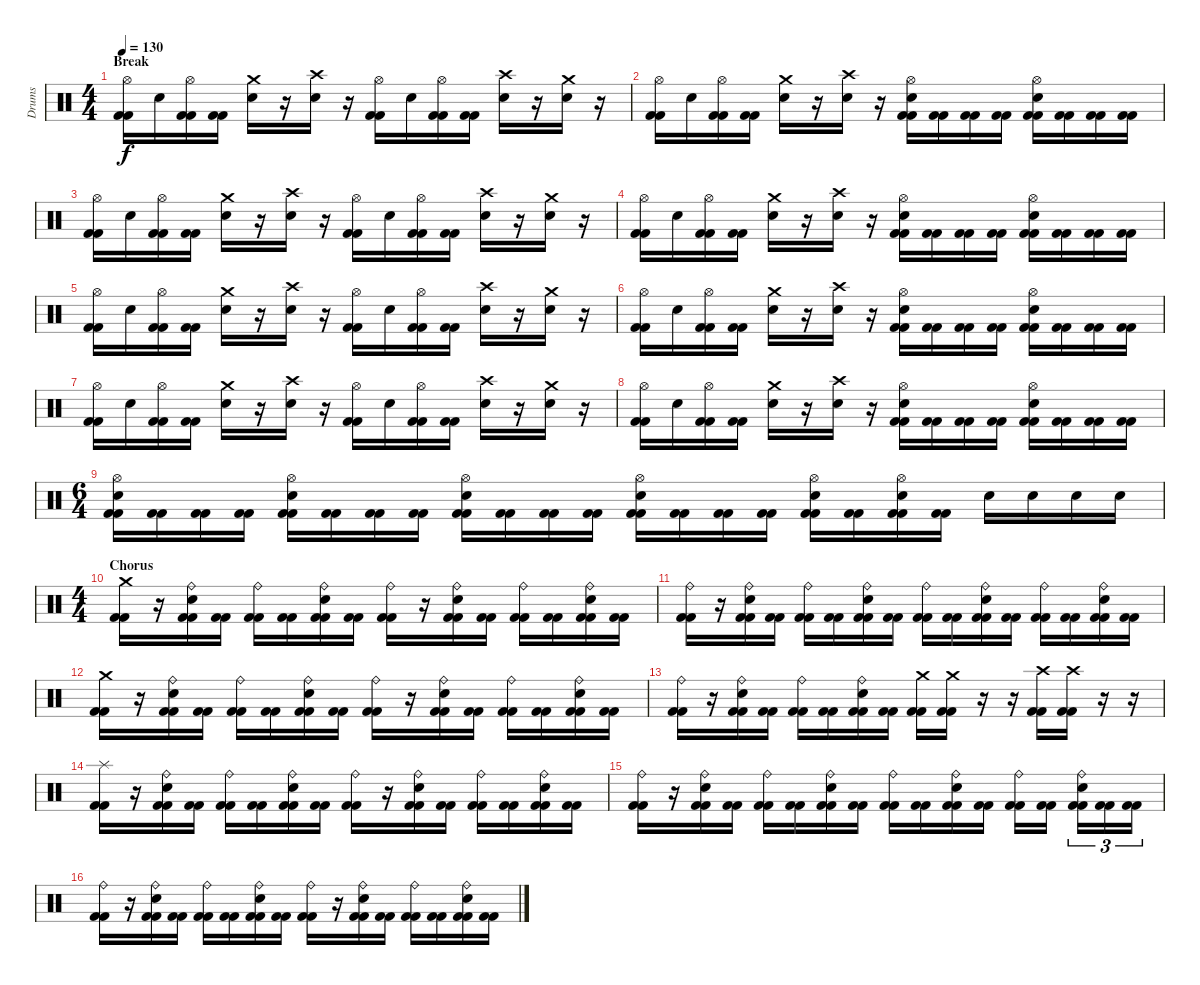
\track ("Drums" "Drums") {instrument percussion}
\staff {score}
\articulation defaults
\ts (4 4)
\section ("" "Break")
\tempo 130
\clef neutral
\ks c
("Hi-Hat (open)" "Kick (hit) 2" "Kick (hit) 2").16{dy f} "Electric Snare (hit)".16 ("Hi-Hat (open)" "Kick (hit) 2" "Kick (hit) 2").16 ("Kick (hit) 2" "Kick (hit) 2").16 ("Crash medium (hit)" "Electric Snare (hit)").16 r.16 ("Crash high (hit)" "Electric Snare (hit)").16 r.16 ("Hi-Hat (open)" "Kick (hit) 2" "Kick (hit) 2").16 "Electric Snare (hit)".16 ("Hi-Hat (open)" "Kick (hit) 2" "Kick (hit) 2").16 ("Kick (hit) 2" "Kick (hit) 2").16 ("Crash high (hit)" "Electric Snare (hit)").16 r.16 ("Crash medium (hit)" "Electric Snare (hit)").16 r.16 |
("Hi-Hat (open)" "Kick (hit) 2" "Kick (hit) 2").16 "Electric Snare (hit)".16 ("Hi-Hat (open)" "Kick (hit) 2" "Kick (hit) 2").16 ("Kick (hit) 2" "Kick (hit) 2").16 ("Crash medium (hit)" "Electric Snare (hit)").16 r.16 ("Crash high (hit)" "Electric Snare (hit)").16 r.16 ("Hi-Hat (open)" "Electric Snare (hit)" "Kick (hit) 2" "Kick (hit) 2").16 ("Kick (hit) 2" "Kick (hit) 2").16 ("Kick (hit) 2" "Kick (hit) 2").16 ("Kick (hit) 2" "Kick (hit) 2").16 ("Hi-Hat (open)" "Electric Snare (hit)" "Kick (hit) 2" "Kick (hit) 2").16 ("Kick (hit) 2" "Kick (hit) 2").16 ("Kick (hit) 2" "Kick (hit) 2").16 ("Kick (hit) 2" "Kick (hit) 2").16 |
("Hi-Hat (open)" "Kick (hit) 2" "Kick (hit) 2").16 "Electric Snare (hit)".16 ("Hi-Hat (open)" "Kick (hit) 2" "Kick (hit) 2").16 ("Kick (hit) 2" "Kick (hit) 2").16 ("Crash medium (hit)" "Electric Snare (hit)").16 r.16 ("Crash high (hit)" "Electric Snare (hit)").16 r.16 ("Hi-Hat (open)" "Kick (hit) 2" "Kick (hit) 2").16 "Electric Snare (hit)".16 ("Hi-Hat (open)" "Kick (hit) 2" "Kick (hit) 2").16 ("Kick (hit) 2" "Kick (hit) 2").16 ("Crash high (hit)" "Electric Snare (hit)").16 r.16 ("Crash medium (hit)" "Electric Snare (hit)").16 r.16 |
("Hi-Hat (open)" "Kick (hit) 2" "Kick (hit) 2").16 "Electric Snare (hit)".16 ("Hi-Hat (open)" "Kick (hit) 2" "Kick (hit) 2").16 ("Kick (hit) 2" "Kick (hit) 2").16 ("Crash medium (hit)" "Electric Snare (hit)").16 r.16 ("Crash high (hit)" "Electric Snare (hit)").16 r.16 ("Hi-Hat (open)" "Electric Snare (hit)" "Kick (hit) 2" "Kick (hit) 2").16 ("Kick (hit) 2" "Kick (hit) 2").16 ("Kick (hit) 2" "Kick (hit) 2").16 ("Kick (hit) 2" "Kick (hit) 2").16 ("Hi-Hat (open)" "Electric Snare (hit)" "Kick (hit) 2" "Kick (hit) 2").16 ("Kick (hit) 2" "Kick (hit) 2").16 ("Kick (hit) 2" "Kick (hit) 2").16 ("Kick (hit) 2" "Kick (hit) 2").16 |
("Hi-Hat (open)" "Kick (hit) 2" "Kick (hit) 2").16 "Electric Snare (hit)".16 ("Hi-Hat (open)" "Kick (hit) 2" "Kick (hit) 2").16 ("Kick (hit) 2" "Kick (hit) 2").16 ("Crash medium (hit)" "Electric Snare (hit)").16 r.16 ("Crash high (hit)" "Electric Snare (hit)").16 r.16 ("Hi-Hat (open)" "Kick (hit) 2" "Kick (hit) 2").16 "Electric Snare (hit)".16 ("Hi-Hat (open)" "Kick (hit) 2" "Kick (hit) 2").16 ("Kick (hit) 2" "Kick (hit) 2").16 ("Crash high (hit)" "Electric Snare (hit)").16 r.16 ("Crash medium (hit)" "Electric Snare (hit)").16 r.16 |
("Hi-Hat (open)" "Kick (hit) 2" "Kick (hit) 2").16 "Electric Snare (hit)".16 ("Hi-Hat (open)" "Kick (hit) 2" "Kick (hit) 2").16 ("Kick (hit) 2" "Kick (hit) 2").16 ("Crash medium (hit)" "Electric Snare (hit)").16 r.16 ("Crash high (hit)" "Electric Snare (hit)").16 r.16 ("Hi-Hat (open)" "Electric Snare (hit)" "Kick (hit) 2" "Kick (hit) 2").16 ("Kick (hit) 2" "Kick (hit) 2").16 ("Kick (hit) 2" "Kick (hit) 2").16 ("Kick (hit) 2" "Kick (hit) 2").16 ("Hi-Hat (open)" "Electric Snare (hit)" "Kick (hit) 2" "Kick (hit) 2").16 ("Kick (hit) 2" "Kick (hit) 2").16 ("Kick (hit) 2" "Kick (hit) 2").16 ("Kick (hit) 2" "Kick (hit) 2").16 |
("Hi-Hat (open)" "Kick (hit) 2" "Kick (hit) 2").16 "Electric Snare (hit)".16 ("Hi-Hat (open)" "Kick (hit) 2" "Kick (hit) 2").16 ("Kick (hit) 2" "Kick (hit) 2").16 ("Crash medium (hit)" "Electric Snare (hit)").16 r.16 ("Crash high (hit)" "Electric Snare (hit)").16 r.16 ("Hi-Hat (open)" "Kick (hit) 2" "Kick (hit) 2").16 "Electric Snare (hit)".16 ("Hi-Hat (open)" "Kick (hit) 2" "Kick (hit) 2").16 ("Kick (hit) 2" "Kick (hit) 2").16 ("Crash high (hit)" "Electric Snare (hit)").16 r.16 ("Crash medium (hit)" "Electric Snare (hit)").16 r.16 |
("Hi-Hat (open)" "Kick (hit) 2" "Kick (hit) 2").16 "Electric Snare (hit)".16 ("Hi-Hat (open)" "Kick (hit) 2" "Kick (hit) 2").16 ("Kick (hit) 2" "Kick (hit) 2").16 ("Crash medium (hit)" "Electric Snare (hit)").16 r.16 ("Crash high (hit)" "Electric Snare (hit)").16 r.16 ("Hi-Hat (open)" "Electric Snare (hit)" "Kick (hit) 2" "Kick (hit) 2").16 ("Kick (hit) 2" "Kick (hit) 2").16 ("Kick (hit) 2" "Kick (hit) 2").16 ("Kick (hit) 2" "Kick (hit) 2").16 ("Hi-Hat (open)" "Electric Snare (hit)" "Kick (hit) 2" "Kick (hit) 2").16 ("Kick (hit) 2" "Kick (hit) 2").16 ("Kick (hit) 2" "Kick (hit) 2").16 ("Kick (hit) 2" "Kick (hit) 2").16 |
\ts (6 4)
("Hi-Hat (open)" "Electric Snare (hit)" "Kick (hit) 2" "Kick (hit) 2").16 ("Kick (hit) 2" "Kick (hit) 2").16 ("Kick (hit) 2" "Kick (hit) 2").16 ("Kick (hit) 2" "Kick (hit) 2").16 ("Hi-Hat (open)" "Electric Snare (hit)" "Kick (hit) 2" "Kick (hit) 2").16 ("Kick (hit) 2" "Kick (hit) 2").16 ("Kick (hit) 2" "Kick (hit) 2").16 ("Kick (hit) 2" "Kick (hit) 2").16 ("Hi-Hat (open)" "Electric Snare (hit)" "Kick (hit) 2" "Kick (hit) 2").16 ("Kick (hit) 2" "Kick (hit) 2").16 ("Kick (hit) 2" "Kick (hit) 2").16 ("Kick (hit) 2" "Kick (hit) 2").16 ("Hi-Hat (open)" "Electric Snare (hit)" "Kick (hit) 2" "Kick (hit) 2").16 ("Kick (hit) 2" "Kick (hit) 2").16 ("Kick (hit) 2" "Kick (hit) 2").16 ("Kick (hit) 2" "Kick (hit) 2").16 ("Hi-Hat (open)" "Electric Snare (hit)" "Kick (hit) 2" "Kick (hit) 2").16 ("Kick (hit) 2" "Kick (hit) 2").16 ("Hi-Hat (open)" "Electric Snare (hit)" "Kick (hit) 2" "Kick (hit) 2").16 ("Kick (hit) 2" "Kick (hit) 2").16 "Electric Snare (hit)".16 "Electric Snare (hit)".16 "Electric Snare (hit)".16 "Electric Snare (hit)".16 |
\ts (4 4)
\section ("" "Chorus")
("Crash medium (hit)" "Kick (hit) 2" "Kick (hit) 2").16 r.16 ("Ride (bell)" "Electric Snare (hit)" "Kick (hit) 2" "Kick (hit) 2").16 ("Kick (hit) 2" "Kick (hit) 2").16 ("Ride (bell)" "Kick (hit) 2" "Kick (hit) 2").16 ("Kick (hit) 2" "Kick (hit) 2").16 ("Ride (bell)" "Electric Snare (hit)" "Kick (hit) 2" "Kick (hit) 2").16 ("Kick (hit) 2" "Kick (hit) 2").16 ("Ride (bell)" "Kick (hit) 2" "Kick (hit) 2").16 r.16 ("Ride (bell)" "Electric Snare (hit)" "Kick (hit) 2" "Kick (hit) 2").16 ("Kick (hit) 2" "Kick (hit) 2").16 ("Ride (bell)" "Kick (hit) 2" "Kick (hit) 2").16 ("Kick (hit) 2" "Kick (hit) 2").16 ("Ride (bell)" "Electric Snare (hit)" "Kick (hit) 2" "Kick (hit) 2").16 ("Kick (hit) 2" "Kick (hit) 2").16 |
("Ride (bell)" "Kick (hit) 2" "Kick (hit) 2").16 r.16 ("Ride (bell)" "Electric Snare (hit)" "Kick (hit) 2" "Kick (hit) 2").16 ("Kick (hit) 2" "Kick (hit) 2").16 ("Ride (bell)" "Kick (hit) 2" "Kick (hit) 2").16 ("Kick (hit) 2" "Kick (hit) 2").16 ("Ride (bell)" "Electric Snare (hit)" "Kick (hit) 2" "Kick (hit) 2").16 ("Kick (hit) 2" "Kick (hit) 2").16 ("Ride (bell)" "Kick (hit) 2" "Kick (hit) 2").16 ("Kick (hit) 2" "Kick (hit) 2").16 ("Ride (bell)" "Electric Snare (hit)" "Kick (hit) 2" "Kick (hit) 2").16 ("Kick (hit) 2" "Kick (hit) 2").16 ("Ride (bell)" "Kick (hit) 2" "Kick (hit) 2").16 ("Kick (hit) 2" "Kick (hit) 2").16 ("Ride (bell)" "Electric Snare (hit)" "Kick (hit) 2" "Kick (hit) 2").16 ("Kick (hit) 2" "Kick (hit) 2").16 |
("Crash medium (hit)" "Kick (hit) 2" "Kick (hit) 2").16 r.16 ("Ride (bell)" "Electric Snare (hit)" "Kick (hit) 2" "Kick (hit) 2").16 ("Kick (hit) 2" "Kick (hit) 2").16 ("Ride (bell)" "Kick (hit) 2" "Kick (hit) 2").16 ("Kick (hit) 2" "Kick (hit) 2").16 ("Ride (bell)" "Electric Snare (hit)" "Kick (hit) 2" "Kick (hit) 2").16 ("Kick (hit) 2" "Kick (hit) 2").16 ("Ride (bell)" "Kick (hit) 2" "Kick (hit) 2").16 r.16 ("Ride (bell)" "Electric Snare (hit)" "Kick (hit) 2" "Kick (hit) 2").16 ("Kick (hit) 2" "Kick (hit) 2").16 ("Ride (bell)" "Kick (hit) 2" "Kick (hit) 2").16 ("Kick (hit) 2" "Kick (hit) 2").16 ("Ride (bell)" "Electric Snare (hit)" "Kick (hit) 2" "Kick (hit) 2").16 ("Kick (hit) 2" "Kick (hit) 2").16 |
("Ride (bell)" "Kick (hit) 2" "Kick (hit) 2").16 r.16 ("Ride (bell)" "Electric Snare (hit)" "Kick (hit) 2" "Kick (hit) 2").16 ("Kick (hit) 2" "Kick (hit) 2").16 ("Ride (bell)" "Kick (hit) 2" "Kick (hit) 2").16 ("Kick (hit) 2" "Kick (hit) 2").16 ("Ride (bell)" "Electric Snare (hit)" "Kick (hit) 2" "Kick (hit) 2").16 ("Kick (hit) 2" "Kick (hit) 2").16 ("Crash medium (hit)" "Kick (hit) 2" "Kick (hit) 2").16 ("Crash medium (hit)" "Kick (hit) 2" "Kick (hit) 2").16 r.16 r.16 ("Crash high (hit)" "Kick (hit) 2" "Kick (hit) 2").16 ("Crash high (hit)" "Kick (hit) 2" "Kick (hit) 2").16 r.16 r.16 |
("Splash (hit)" "Kick (hit) 2" "Kick (hit) 2").16 r.16 ("Ride (bell)" "Electric Snare (hit)" "Kick (hit) 2" "Kick (hit) 2").16 ("Kick (hit) 2" "Kick (hit) 2").16 ("Ride (bell)" "Kick (hit) 2" "Kick (hit) 2").16 ("Kick (hit) 2" "Kick (hit) 2").16 ("Ride (bell)" "Electric Snare (hit)" "Kick (hit) 2" "Kick (hit) 2").16 ("Kick (hit) 2" "Kick (hit) 2").16 ("Ride (bell)" "Kick (hit) 2" "Kick (hit) 2").16 r.16 ("Ride (bell)" "Electric Snare (hit)" "Kick (hit) 2" "Kick (hit) 2").16 ("Kick (hit) 2" "Kick (hit) 2").16 ("Ride (bell)" "Kick (hit) 2" "Kick (hit) 2").16 ("Kick (hit) 2" "Kick (hit) 2").16 ("Ride (bell)" "Electric Snare (hit)" "Kick (hit) 2" "Kick (hit) 2").16 ("Kick (hit) 2" "Kick (hit) 2").16 |
("Ride (bell)" "Kick (hit) 2" "Kick (hit) 2").16 r.16 ("Ride (bell)" "Electric Snare (hit)" "Kick (hit) 2" "Kick (hit) 2").16 ("Kick (hit) 2" "Kick (hit) 2").16 ("Ride (bell)" "Kick (hit) 2" "Kick (hit) 2").16 ("Kick (hit) 2" "Kick (hit) 2").16 ("Ride (bell)" "Electric Snare (hit)" "Kick (hit) 2" "Kick (hit) 2").16 ("Kick (hit) 2" "Kick (hit) 2").16 ("Ride (bell)" "Kick (hit) 2" "Kick (hit) 2").16 ("Kick (hit) 2" "Kick (hit) 2").16 ("Ride (bell)" "Electric Snare (hit)" "Kick (hit) 2" "Kick (hit) 2").16 ("Kick (hit) 2" "Kick (hit) 2").16 ("Ride (bell)" "Kick (hit) 2" "Kick (hit) 2").16 ("Kick (hit) 2" "Kick (hit) 2").16 ("Ride (bell)" "Electric Snare (hit)" "Kick (hit) 2" "Kick (hit) 2").16{tu (3 2)} ("Kick (hit) 2" "Kick (hit) 2").16{tu (3 2)} ("Kick (hit) 2" "Kick (hit) 2").16{tu (3 2)} |
("Ride (bell)" "Kick (hit) 2" "Kick (hit) 2").16 r.16 ("Ride (bell)" "Electric Snare (hit)" "Kick (hit) 2" "Kick (hit) 2").16 ("Kick (hit) 2" "Kick (hit) 2").16 ("Ride (bell)" "Kick (hit) 2" "Kick (hit) 2").16 ("Kick (hit) 2" "Kick (hit) 2").16 ("Ride (bell)" "Electric Snare (hit)" "Kick (hit) 2" "Kick (hit) 2").16 ("Kick (hit) 2" "Kick (hit) 2").16 ("Ride (bell)" "Kick (hit) 2" "Kick (hit) 2").16 r.16 ("Ride (bell)" "Electric Snare (hit)" "Kick (hit) 2" "Kick (hit) 2").16 ("Kick (hit) 2" "Kick (hit) 2").16 ("Ride (bell)" "Kick (hit) 2" "Kick (hit) 2").16 ("Kick (hit) 2" "Kick (hit) 2").16 ("Ride (bell)" "Electric Snare (hit)" "Kick (hit) 2" "Kick (hit) 2").16 ("Kick (hit) 2" "Kick (hit) 2").16
